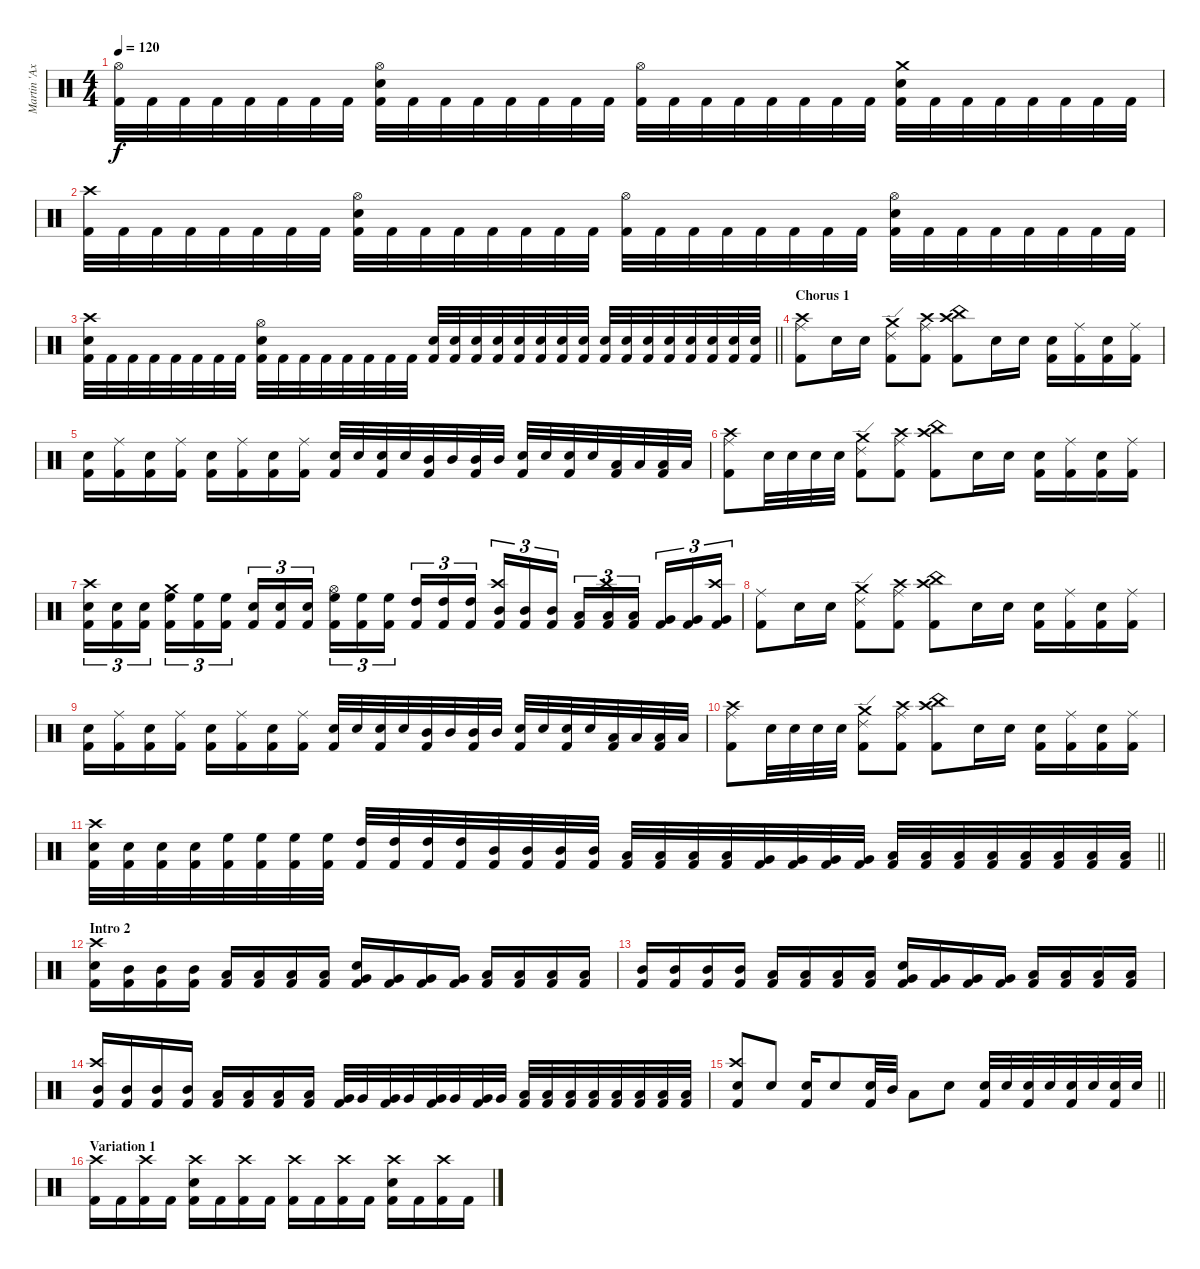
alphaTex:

\track ("Martin 'Axe' Axenrot" "Martin 'Ax") {instrument percussion}
\staff {score}
\articulation defaults
\ts (4 4)
\tempo 120
\clef neutral
\ks c
("Hi-Hat (open)" "Kick (hit) 2").32{dy f} "Kick (hit) 2".32 "Kick (hit) 2".32 "Kick (hit) 2".32 "Kick (hit) 2".32 "Kick (hit) 2".32 "Kick (hit) 2".32 "Kick (hit) 2".32 ("Snare (hit) 2" "Hi-Hat (open)" "Kick (hit) 2").32 "Kick (hit) 2".32 "Kick (hit) 2".32 "Kick (hit) 2".32 "Kick (hit) 2".32 "Kick (hit) 2".32 "Kick (hit) 2".32 "Kick (hit) 2".32 ("Hi-Hat (open)" "Kick (hit) 2").32 "Kick (hit) 2".32 "Kick (hit) 2".32 "Kick (hit) 2".32 "Kick (hit) 2".32 "Kick (hit) 2".32 "Kick (hit) 2".32 "Kick (hit) 2".32 ("Snare (hit) 2" "Crash medium (hit)" "Kick (hit) 2").32 "Kick (hit) 2".32 "Kick (hit) 2".32 "Kick (hit) 2".32 "Kick (hit) 2".32 "Kick (hit) 2".32 "Kick (hit) 2".32 "Kick (hit) 2".32 |
("Crash high (hit)" "Kick (hit) 2").32 "Kick (hit) 2".32 "Kick (hit) 2".32 "Kick (hit) 2".32 "Kick (hit) 2".32 "Kick (hit) 2".32 "Kick (hit) 2".32 "Kick (hit) 2".32 ("Snare (hit) 2" "Hi-Hat (open)" "Kick (hit) 2").32 "Kick (hit) 2".32 "Kick (hit) 2".32 "Kick (hit) 2".32 "Kick (hit) 2".32 "Kick (hit) 2".32 "Kick (hit) 2".32 "Kick (hit) 2".32 ("Hi-Hat (open)" "Kick (hit) 2").32 "Kick (hit) 2".32 "Kick (hit) 2".32 "Kick (hit) 2".32 "Kick (hit) 2".32 "Kick (hit) 2".32 "Kick (hit) 2".32 "Kick (hit) 2".32 ("Snare (hit) 2" "Hi-Hat (open)" "Kick (hit) 2").32 "Kick (hit) 2".32 "Kick (hit) 2".32 "Kick (hit) 2".32 "Kick (hit) 2".32 "Kick (hit) 2".32 "Kick (hit) 2".32 "Kick (hit) 2".32 |
\barLineRight lightlight
("Crash high (hit)" "Snare (hit) 2" "Kick (hit) 2").32 "Kick (hit) 2".32 "Kick (hit) 2".32 "Kick (hit) 2".32 "Kick (hit) 2".32 "Kick (hit) 2".32 "Kick (hit) 2".32 "Kick (hit) 2".32 ("Snare (hit) 2" "Hi-Hat (open)" "Kick (hit) 2").32 "Kick (hit) 2".32 "Kick (hit) 2".32 "Kick (hit) 2".32 "Kick (hit) 2".32 "Kick (hit) 2".32 "Kick (hit) 2".32 "Kick (hit) 2".32 ("Electric Snare (hit)" "Kick (hit) 2").32 ("Electric Snare (hit)" "Kick (hit) 2").32 ("Electric Snare (hit)" "Kick (hit) 2").32 ("Electric Snare (hit)" "Kick (hit) 2").32 ("Snare (hit) 2" "Kick (hit) 2").32 ("Snare (hit) 2" "Kick (hit) 2").32 ("Snare (hit) 2" "Kick (hit) 2").32 ("Snare (hit) 2" "Kick (hit) 2").32 ("Electric Snare (hit)" "Kick (hit) 2").32 ("Electric Snare (hit)" "Kick (hit) 2").32 ("Electric Snare (hit)" "Kick (hit) 2").32 ("Electric Snare (hit)" "Kick (hit) 2").32 ("Snare (hit) 2" "Kick (hit) 2").32 ("Snare (hit) 2" "Kick (hit) 2").32 ("Snare (hit) 2" "Kick (hit) 2").32 ("Snare (hit) 2" "Kick (hit) 2").32 |
\section ("" "Chorus 1")
("Crash high (hit)" "Ride (middle)" "Kick (hit) 2").8 "Snare (hit) 2".16 "Snare (hit) 2".16 ("Crash medium (hit)" "Ride (edge) 2" "Kick (hit) 2").8 ("Crash high (hit)" "Ride (middle)" "Kick (hit) 2").8 ("Crash high (hit)" "China (hit)" "Kick (hit) 2").8 "Snare (hit) 2".16 "Snare (hit) 2".16 ("Snare (hit) 2" "Kick (hit) 2").16 ("Ride (middle)" "Kick (hit) 2").16 ("Snare (hit) 2" "Kick (hit) 2").16 ("Ride (middle)" "Kick (hit) 2").16 |
("Snare (hit) 2" "Kick (hit) 2").16 ("Ride (middle)" "Kick (hit) 2").16 ("Snare (hit) 2" "Kick (hit) 2").16 ("Ride (middle)" "Kick (hit) 2").16 ("Snare (hit) 2" "Kick (hit) 2").16 ("Ride (middle)" "Kick (hit) 2").16 ("Snare (hit) 2" "Kick (hit) 2").16 ("Ride (middle)" "Kick (hit) 2").16 ("Snare (hit) 2" "Kick (hit) 2").32 "Snare (hit) 2".32 ("Snare (hit) 2" "Kick (hit) 2").32 "Snare (hit) 2".32 ("Mid Tom (hit)" "Kick (hit) 2").32 "Mid Tom (hit)".32 ("Mid Tom (hit)" "Kick (hit) 2").32 "Mid Tom (hit)".32 ("Snare (hit) 2" "Kick (hit) 2").32 "Snare (hit) 2".32 ("Snare (hit) 2" "Kick (hit) 2").32 "Snare (hit) 2".32 ("Low Tom (hit)" "Kick (hit) 2").32 "Low Tom (hit)".32 ("Low Tom (hit)" "Kick (hit) 2").32 "Low Tom (hit)".32 |
("Crash high (hit)" "Ride (middle)" "Kick (hit) 2").8 "Snare (hit) 2".32 "Snare (hit) 2".32 "Snare (hit) 2".32 "Snare (hit) 2".32 ("Crash medium (hit)" "Ride (edge) 2" "Kick (hit) 2").8 ("Crash high (hit)" "Ride (middle)" "Kick (hit) 2").8 ("Crash high (hit)" "China (hit)" "Kick (hit) 2").8 "Snare (hit) 2".16 "Snare (hit) 2".16 ("Snare (hit) 2" "Kick (hit) 2").16 ("Ride (middle)" "Kick (hit) 2").16 ("Snare (hit) 2" "Kick (hit) 2").16 ("Ride (middle)" "Kick (hit) 2").16 |
("Crash high (hit)" "Snare (hit) 2" "Kick (hit) 2").16{tu (3 2)} ("Snare (hit) 2" "Kick (hit) 2").16{tu (3 2)} ("Snare (hit) 2" "Kick (hit) 2").16{tu (3 2) beam splitsecondary} ("Crash medium (hit)" "High Floor Tom (hit)" "Kick (hit) 2").16{tu (3 2)} ("High Floor Tom (hit)" "Kick (hit) 2").16{tu (3 2)} ("High Floor Tom (hit)" "Kick (hit) 2").16{tu (3 2)} ("Snare (hit) 2" "Kick (hit) 2").16{tu (3 2)} ("Snare (hit) 2" "Kick (hit) 2").16{tu (3 2)} ("Snare (hit) 2" "Kick (hit) 2").16{tu (3 2) beam splitsecondary} ("Hi-Hat (open)" "High Floor Tom (hit)" "Kick (hit) 2").16{tu (3 2)} ("High Floor Tom (hit)" "Kick (hit) 2").16{tu (3 2)} ("High Floor Tom (hit)" "Kick (hit) 2").16{tu (3 2)} ("High Tom (hit)" "Kick (hit) 2").16{tu (3 2)} ("High Tom (hit)" "Kick (hit) 2").16{tu (3 2)} ("High Tom (hit)" "Kick (hit) 2").16{tu (3 2) beam splitsecondary} ("Crash high (hit)" "Mid Tom (hit)" "Kick (hit) 2").16{tu (3 2)} ("Mid Tom (hit)" "Kick (hit) 2").16{tu (3 2)} ("Mid Tom (hit)" "Kick (hit) 2").16{tu (3 2)} ("Low Tom (hit)" "Kick (hit) 2").16{tu (3 2)} ("Crash high (hit)" "Low Tom (hit)" "Kick (hit) 2").16{tu (3 2)} ("Low Tom (hit)" "Kick (hit) 2").16{tu (3 2) beam splitsecondary} ("Very Low Tom (hit)" "Kick (hit) 2").16{tu (3 2)} ("Very Low Tom (hit)" "Kick (hit) 2").16{tu (3 2)} ("Crash high (hit)" "Very Low Tom (hit)" "Kick (hit) 2").16{tu (3 2)} |
("Ride (middle)" "Kick (hit) 2").8 "Snare (hit) 2".16 "Snare (hit) 2".16 ("Crash medium (hit)" "Ride (edge) 2" "Kick (hit) 2").8 ("Crash high (hit)" "Ride (middle)" "Kick (hit) 2").8 ("Crash high (hit)" "China (hit)" "Kick (hit) 2").8 "Snare (hit) 2".16 "Snare (hit) 2".16 ("Snare (hit) 2" "Kick (hit) 2").16 ("Ride (middle)" "Kick (hit) 2").16 ("Snare (hit) 2" "Kick (hit) 2").16 ("Ride (middle)" "Kick (hit) 2").16 |
("Snare (hit) 2" "Kick (hit) 2").16 ("Ride (middle)" "Kick (hit) 2").16 ("Snare (hit) 2" "Kick (hit) 2").16 ("Ride (middle)" "Kick (hit) 2").16 ("Snare (hit) 2" "Kick (hit) 2").16 ("Ride (middle)" "Kick (hit) 2").16 ("Snare (hit) 2" "Kick (hit) 2").16 ("Ride (middle)" "Kick (hit) 2").16 ("Snare (hit) 2" "Kick (hit) 2").32 "Snare (hit) 2".32 ("Snare (hit) 2" "Kick (hit) 2").32 "Snare (hit) 2".32 ("Mid Tom (hit)" "Kick (hit) 2").32 "Mid Tom (hit)".32 ("Mid Tom (hit)" "Kick (hit) 2").32 "Mid Tom (hit)".32 ("Snare (hit) 2" "Kick (hit) 2").32 "Snare (hit) 2".32 ("Snare (hit) 2" "Kick (hit) 2").32 "Snare (hit) 2".32 ("Low Tom (hit)" "Kick (hit) 2").32 "Low Tom (hit)".32 ("Low Tom (hit)" "Kick (hit) 2").32 "Low Tom (hit)".32 |
("Crash high (hit)" "Ride (middle)" "Kick (hit) 2").8 "Snare (hit) 2".32 "Snare (hit) 2".32 "Snare (hit) 2".32 "Snare (hit) 2".32 ("Crash medium (hit)" "Ride (edge) 2" "Kick (hit) 2").8 ("Crash high (hit)" "Ride (middle)" "Kick (hit) 2").8 ("Crash high (hit)" "China (hit)" "Kick (hit) 2").8 "Snare (hit) 2".16 "Snare (hit) 2".16 ("Snare (hit) 2" "Kick (hit) 2").16 ("Ride (middle)" "Kick (hit) 2").16 ("Snare (hit) 2" "Kick (hit) 2").16 ("Ride (middle)" "Kick (hit) 2").16 |
\barLineRight lightlight
("Crash high (hit)" "Snare (hit) 2" "Kick (hit) 2").32 ("Snare (hit) 2" "Kick (hit) 2").32 ("Snare (hit) 2" "Kick (hit) 2").32 ("Snare (hit) 2" "Kick (hit) 2").32 ("High Floor Tom (hit)" "Kick (hit) 2").32 ("High Floor Tom (hit)" "Kick (hit) 2").32 ("High Floor Tom (hit)" "Kick (hit) 2").32 ("High Floor Tom (hit)" "Kick (hit) 2").32 ("High Tom (hit)" "Kick (hit) 2").32 ("High Tom (hit)" "Kick (hit) 2").32 ("High Tom (hit)" "Kick (hit) 2").32 ("High Tom (hit)" "Kick (hit) 2").32 ("Mid Tom (hit)" "Kick (hit) 2").32 ("Mid Tom (hit)" "Kick (hit) 2").32 ("Mid Tom (hit)" "Kick (hit) 2").32 ("Mid Tom (hit)" "Kick (hit) 2").32 ("Low Tom (hit)" "Kick (hit) 2").32 ("Low Tom (hit)" "Kick (hit) 2").32 ("Low Tom (hit)" "Kick (hit) 2").32 ("Low Tom (hit)" "Kick (hit) 2").32 ("Very Low Tom (hit)" "Kick (hit) 2").32 ("Very Low Tom (hit)" "Kick (hit) 2").32 ("Very Low Tom (hit)" "Kick (hit) 2").32 ("Very Low Tom (hit)" "Kick (hit) 2").32 ("Low Floor Tom (hit)" "Kick (hit) 2").32 ("Low Floor Tom (hit)" "Kick (hit) 2").32 ("Low Floor Tom (hit)" "Kick (hit) 2").32 ("Low Floor Tom (hit)" "Kick (hit) 2").32 ("Low Floor Tom (hit)" "Kick (hit) 2").32 ("Low Floor Tom (hit)" "Kick (hit) 2").32 ("Low Floor Tom (hit)" "Kick (hit) 2").32 ("Low Floor Tom (hit)" "Kick (hit) 2").32 |
\section ("" "Intro 2")
("Crash high (hit)" "Snare (hit) 2" "Kick (hit) 2").16 ("Mid Tom (hit)" "Kick (hit) 2").16 ("Mid Tom (hit)" "Kick (hit) 2").16 ("Mid Tom (hit)" "Kick (hit) 2").16 ("Low Tom (hit)" "Kick (hit) 2").16 ("Low Tom (hit)" "Kick (hit) 2").16 ("Low Tom (hit)" "Kick (hit) 2").16 ("Low Tom (hit)" "Kick (hit) 2").16 ("Snare (hit) 2" "Very Low Tom (hit)" "Kick (hit) 2").16 ("Very Low Tom (hit)" "Kick (hit) 2").16 ("Very Low Tom (hit)" "Kick (hit) 2").16 ("Very Low Tom (hit)" "Kick (hit) 2").16 ("Low Floor Tom (hit)" "Kick (hit) 2").16 ("Low Floor Tom (hit)" "Kick (hit) 2").16 ("Low Floor Tom (hit)" "Kick (hit) 2").16 ("Low Floor Tom (hit)" "Kick (hit) 2").16 |
("Mid Tom (hit)" "Kick (hit) 2").16 ("Mid Tom (hit)" "Kick (hit) 2").16 ("Mid Tom (hit)" "Kick (hit) 2").16 ("Mid Tom (hit)" "Kick (hit) 2").16 ("Low Tom (hit)" "Kick (hit) 2").16 ("Low Tom (hit)" "Kick (hit) 2").16 ("Low Tom (hit)" "Kick (hit) 2").16 ("Low Tom (hit)" "Kick (hit) 2").16 ("Snare (hit) 2" "Very Low Tom (hit)" "Kick (hit) 2").16 ("Very Low Tom (hit)" "Kick (hit) 2").16 ("Very Low Tom (hit)" "Kick (hit) 2").16 ("Very Low Tom (hit)" "Kick (hit) 2").16 ("Low Floor Tom (hit)" "Kick (hit) 2").16 ("Low Floor Tom (hit)" "Kick (hit) 2").16 ("Low Floor Tom (hit)" "Kick (hit) 2").16 ("Low Floor Tom (hit)" "Kick (hit) 2").16 |
("Crash high (hit)" "Mid Tom (hit)" "Kick (hit) 2").16 ("Mid Tom (hit)" "Kick (hit) 2").16 ("Mid Tom (hit)" "Kick (hit) 2").16 ("Mid Tom (hit)" "Kick (hit) 2").16 ("Low Tom (hit)" "Kick (hit) 2").16 ("Low Tom (hit)" "Kick (hit) 2").16 ("Low Tom (hit)" "Kick (hit) 2").16 ("Low Tom (hit)" "Kick (hit) 2").16 ("Very Low Tom (hit)" "Kick (hit) 2").32 "Very Low Tom (hit)".32 ("Very Low Tom (hit)" "Kick (hit) 2").32 "Very Low Tom (hit)".32 ("Very Low Tom (hit)" "Kick (hit) 2").32 "Very Low Tom (hit)".32 ("Very Low Tom (hit)" "Kick (hit) 2").32 "Very Low Tom (hit)".32 ("Low Floor Tom (hit)" "Kick (hit) 2").32 ("Low Floor Tom (hit)" "Kick (hit) 2").32 ("Low Floor Tom (hit)" "Kick (hit) 2").32 ("Low Floor Tom (hit)" "Kick (hit) 2").32 ("Low Floor Tom (hit)" "Kick (hit) 2").32 ("Low Floor Tom (hit)" "Kick (hit) 2").32 ("Low Floor Tom (hit)" "Kick (hit) 2").32 ("Low Floor Tom (hit)" "Kick (hit) 2").32 |
\barLineRight lightlight
("Crash high (hit)" "Electric Snare (hit)" "Kick (hit) 2").8 "Electric Snare (hit)".8 ("Snare (hit) 2" "Kick (hit) 2").16 "Snare (hit) 2".8 ("Snare (hit) 2" "Kick (hit) 2").32 "Mid Tom (hit)".32 "Low Tom (hit)".8 "Snare (hit) 2".8 ("Snare (hit) 2" "Kick (hit) 2").32 "Snare (hit) 2".32 ("Snare (hit) 2" "Kick (hit) 2").32 "Snare (hit) 2".32 ("Snare (hit) 2" "Kick (hit) 2").32 "Snare (hit) 2".32 ("Snare (hit) 2" "Kick (hit) 2").32 "Snare (hit) 2".32 |
\section ("" "Variation 1")
("Crash high (hit)" "Kick (hit) 2").16 "Kick (hit) 2".16 ("Crash high (hit)" "Kick (hit) 2").16 "Kick (hit) 2".16 ("Crash high (hit)" "Snare (hit) 2" "Kick (hit) 2").16 "Kick (hit) 2".16 ("Crash high (hit)" "Kick (hit) 2").16 "Kick (hit) 2".16 ("Crash high (hit)" "Kick (hit) 2").16 "Kick (hit) 2".16 ("Crash high (hit)" "Kick (hit) 2").16 "Kick (hit) 2".16 ("Crash high (hit)" "Snare (hit) 2" "Kick (hit) 2").16 "Kick (hit) 2".16 ("Crash high (hit)" "Kick (hit) 2").16 "Kick (hit) 2".16
